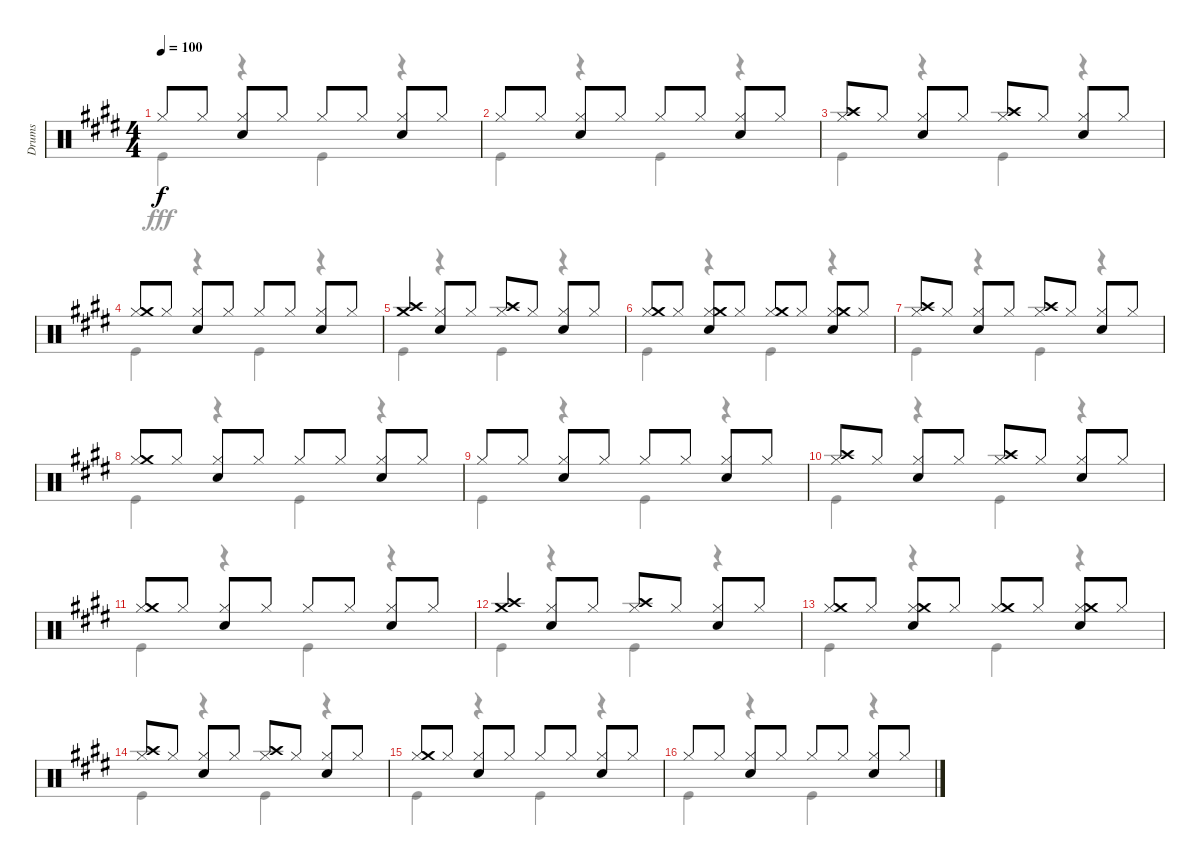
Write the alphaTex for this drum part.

\track ("Drums" "Drums") {instrument percussion}
\staff {score}
\articulation defaults
\voice
\ts (4 4)
\tempo 100
\clef neutral
\ks e "Hi-Hat (closed)".8{dy f} "Hi-Hat (closed)".8
("Hi-Hat (closed)" "Snare (hit) 2").8 "Hi-Hat (closed)".8 "Hi-Hat (closed)".8 "Hi-Hat (closed)".8 ("Hi-Hat (closed)" "Snare (hit) 2").8 "Hi-Hat (closed)".8 |
"Hi-Hat (closed)".8 "Hi-Hat (closed)".8 ("Hi-Hat (closed)" "Snare (hit) 2").8 "Hi-Hat (closed)".8 "Hi-Hat (closed)".8 "Hi-Hat (closed)".8 ("Hi-Hat (closed)" "Snare (hit) 2").8 "Hi-Hat (closed)".8 |
("Hi-Hat (closed)" "Crash high (hit)").8 "Hi-Hat (closed)".8 ("Hi-Hat (closed)" "Snare (hit) 2").8 "Hi-Hat (closed)".8 ("Hi-Hat (closed)" "Crash high (hit)").8 "Hi-Hat (closed)".8 ("Hi-Hat (closed)" "Snare (hit) 2").8 "Hi-Hat (closed)".8 |
("Hi-Hat (closed)" "Crash medium (hit)").8 "Hi-Hat (closed)".8 ("Hi-Hat (closed)" "Snare (hit) 2").8 "Hi-Hat (closed)".8 "Hi-Hat (closed)".8 "Hi-Hat (closed)".8 ("Hi-Hat (closed)" "Snare (hit) 2").8 "Hi-Hat (closed)".8 |
("Crash high (hit)" "Crash medium (hit)").4 ("Hi-Hat (closed)" "Snare (hit) 2").8 "Hi-Hat (closed)".8 ("Hi-Hat (closed)" "Crash high (hit)").8 "Hi-Hat (closed)".8 ("Hi-Hat (closed)" "Snare (hit) 2").8 "Hi-Hat (closed)".8 |
("Hi-Hat (closed)" "Crash medium (hit)").8 "Hi-Hat (closed)".8 ("Hi-Hat (closed)" "Snare (hit) 2" "Crash medium (hit)").8 "Hi-Hat (closed)".8 ("Hi-Hat (closed)" "Crash medium (hit)").8 "Hi-Hat (closed)".8 ("Hi-Hat (closed)" "Snare (hit) 2" "Crash medium (hit)").8 "Hi-Hat (closed)".8 |
("Hi-Hat (closed)" "Crash high (hit)").8 "Hi-Hat (closed)".8 ("Hi-Hat (closed)" "Snare (hit) 2").8 "Hi-Hat (closed)".8 ("Hi-Hat (closed)" "Crash high (hit)").8 "Hi-Hat (closed)".8 ("Hi-Hat (closed)" "Snare (hit) 2").8 "Hi-Hat (closed)".8 |
("Hi-Hat (closed)" "Crash medium (hit)").8 "Hi-Hat (closed)".8 ("Hi-Hat (closed)" "Snare (hit) 2").8 "Hi-Hat (closed)".8 "Hi-Hat (closed)".8 "Hi-Hat (closed)".8 ("Hi-Hat (closed)" "Snare (hit) 2").8 "Hi-Hat (closed)".8 |
"Hi-Hat (closed)".8 "Hi-Hat (closed)".8 ("Hi-Hat (closed)" "Snare (hit) 2").8 "Hi-Hat (closed)".8 "Hi-Hat (closed)".8 "Hi-Hat (closed)".8 ("Hi-Hat (closed)" "Snare (hit) 2").8 "Hi-Hat (closed)".8 |
("Hi-Hat (closed)" "Crash high (hit)").8 "Hi-Hat (closed)".8 ("Hi-Hat (closed)" "Snare (hit) 2").8 "Hi-Hat (closed)".8 ("Hi-Hat (closed)" "Crash high (hit)").8 "Hi-Hat (closed)".8 ("Hi-Hat (closed)" "Snare (hit) 2").8 "Hi-Hat (closed)".8 |
("Hi-Hat (closed)" "Crash medium (hit)").8 "Hi-Hat (closed)".8 ("Hi-Hat (closed)" "Snare (hit) 2").8 "Hi-Hat (closed)".8 "Hi-Hat (closed)".8 "Hi-Hat (closed)".8 ("Hi-Hat (closed)" "Snare (hit) 2").8 "Hi-Hat (closed)".8 |
("Crash high (hit)" "Crash medium (hit)").4 ("Hi-Hat (closed)" "Snare (hit) 2").8 "Hi-Hat (closed)".8 ("Hi-Hat (closed)" "Crash high (hit)").8 "Hi-Hat (closed)".8 ("Hi-Hat (closed)" "Snare (hit) 2").8 "Hi-Hat (closed)".8 |
("Hi-Hat (closed)" "Crash medium (hit)").8 "Hi-Hat (closed)".8 ("Hi-Hat (closed)" "Snare (hit) 2" "Crash medium (hit)").8 "Hi-Hat (closed)".8 ("Hi-Hat (closed)" "Crash medium (hit)").8 "Hi-Hat (closed)".8 ("Hi-Hat (closed)" "Snare (hit) 2" "Crash medium (hit)").8 "Hi-Hat (closed)".8 |
("Hi-Hat (closed)" "Crash high (hit)").8 "Hi-Hat (closed)".8 ("Hi-Hat (closed)" "Snare (hit) 2").8 "Hi-Hat (closed)".8 ("Hi-Hat (closed)" "Crash high (hit)").8 "Hi-Hat (closed)".8 ("Hi-Hat (closed)" "Snare (hit) 2").8 "Hi-Hat (closed)".8 |
("Hi-Hat (closed)" "Crash medium (hit)").8 "Hi-Hat (closed)".8 ("Hi-Hat (closed)" "Snare (hit) 2").8 "Hi-Hat (closed)".8 "Hi-Hat (closed)".8 "Hi-Hat (closed)".8 ("Hi-Hat (closed)" "Snare (hit) 2").8 "Hi-Hat (closed)".8 |
"Hi-Hat (closed)".8 "Hi-Hat (closed)".8 ("Hi-Hat (closed)" "Snare (hit) 2").8 "Hi-Hat (closed)".8 "Hi-Hat (closed)".8 "Hi-Hat (closed)".8 ("Hi-Hat (closed)" "Snare (hit) 2").8 "Hi-Hat (closed)".8
\voice
\clef neutral
\ottava regular
\simile none
\ks e "Kick (hit)".4{dy fff}
r.4 "Kick (hit)".4 r.4 |
"Kick (hit)".4 r.4 "Kick (hit)".4 r.4 |
"Kick (hit)".4 r.4 "Kick (hit)".4 r.4 |
"Kick (hit)".4 r.4 "Kick (hit)".4 r.4 |
"Kick (hit)".4 r.4 "Kick (hit)".4 r.4 |
"Kick (hit)".4 r.4 "Kick (hit)".4 r.4 |
"Kick (hit)".4 r.4 "Kick (hit)".4 r.4 |
"Kick (hit)".4 r.4 "Kick (hit)".4 r.4 |
"Kick (hit)".4 r.4 "Kick (hit)".4 r.4 |
"Kick (hit)".4 r.4 "Kick (hit)".4 r.4 |
"Kick (hit)".4 r.4 "Kick (hit)".4 r.4 |
"Kick (hit)".4 r.4 "Kick (hit)".4 r.4 |
"Kick (hit)".4 r.4 "Kick (hit)".4 r.4 |
"Kick (hit)".4 r.4 "Kick (hit)".4 r.4 |
"Kick (hit)".4 r.4 "Kick (hit)".4 r.4 |
"Kick (hit)".4 r.4 "Kick (hit)".4 r.4
